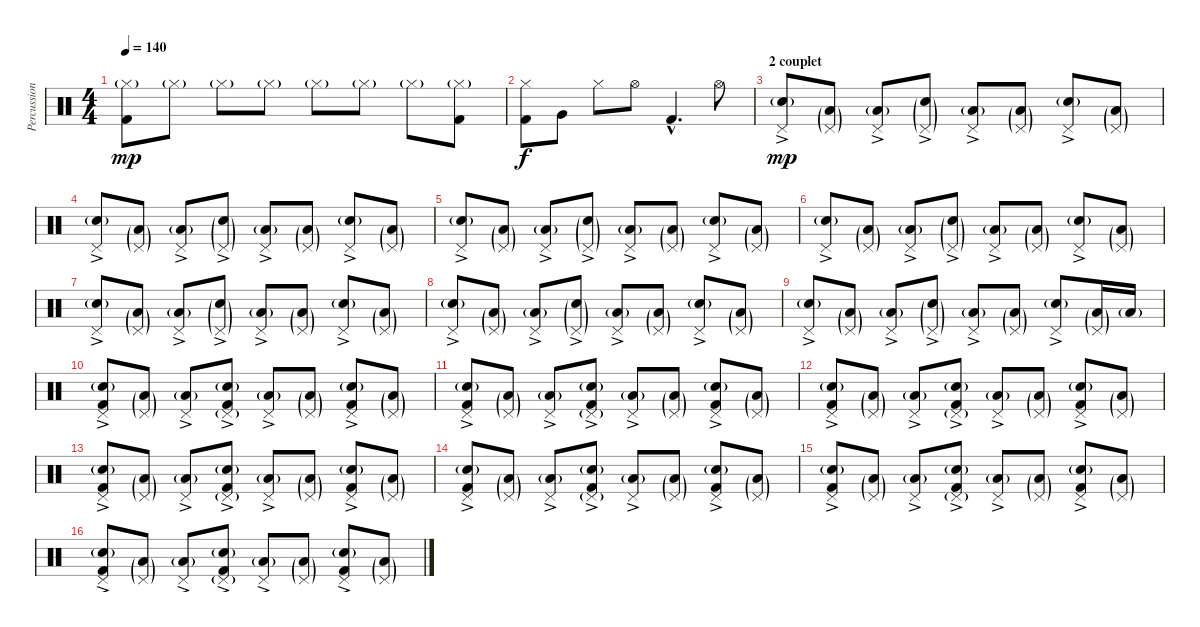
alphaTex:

\track ("Percussions" "Percussion") {instrument percussion}
\staff {score}
\articulation defaults
\ts (4 4)
\tempo 140
\clef neutral
\ks c
("Hi-Hat (closed)"{g} "Kick (hit) 2").8{dy mp} "Hi-Hat (closed)"{g}.8 "Hi-Hat (closed)"{g}.8 "Hi-Hat (closed)"{g}.8 "Hi-Hat (closed)"{g}.8 "Hi-Hat (closed)"{g}.8 "Hi-Hat (closed)"{g}.8 ("Hi-Hat (closed)"{g} "Kick (hit) 2").8 |
("Hi-Hat (closed)" "Kick (hit) 2").8{dy f} "Very Low Tom (hit)".8 "Hi-Hat (closed)".8 "Hi-Hat (open)".8 "Kick (hit) 2"{hac}.4{d} "Hi-Hat (open)".8 |
\section ("" "2 couplet")
("Pedal Hi-Hat (hit)"{ac} "Electric Snare (hit)"{g ac}).8{dy mp} ("Pedal Hi-Hat (hit)"{g} "Low Tom (hit)"{g}).8 ("Pedal Hi-Hat (hit)"{ac} "Low Tom (hit)"{g}).8 ("Pedal Hi-Hat (hit)"{g} "Electric Snare (hit)"{g ac}).8 ("Pedal Hi-Hat (hit)"{ac} "Low Tom (hit)"{g}).8 ("Pedal Hi-Hat (hit)"{g} "Low Tom (hit)"{g}).8 ("Pedal Hi-Hat (hit)"{ac} "Electric Snare (hit)"{g ac}).8 ("Pedal Hi-Hat (hit)"{g} "Low Tom (hit)"{g}).8 |
("Pedal Hi-Hat (hit)"{ac} "Electric Snare (hit)"{g ac}).8 ("Pedal Hi-Hat (hit)"{g} "Low Tom (hit)"{g}).8 ("Pedal Hi-Hat (hit)"{ac} "Low Tom (hit)"{g}).8 ("Pedal Hi-Hat (hit)"{g} "Electric Snare (hit)"{g ac}).8 ("Pedal Hi-Hat (hit)"{ac} "Low Tom (hit)"{g}).8 ("Pedal Hi-Hat (hit)"{g} "Low Tom (hit)"{g}).8 ("Pedal Hi-Hat (hit)"{ac} "Electric Snare (hit)"{g ac}).8 ("Pedal Hi-Hat (hit)"{g} "Low Tom (hit)"{g}).8 |
("Pedal Hi-Hat (hit)"{ac} "Electric Snare (hit)"{g ac}).8 ("Pedal Hi-Hat (hit)"{g} "Low Tom (hit)"{g}).8 ("Pedal Hi-Hat (hit)"{ac} "Low Tom (hit)"{g}).8 ("Pedal Hi-Hat (hit)"{g} "Electric Snare (hit)"{g ac}).8 ("Pedal Hi-Hat (hit)"{ac} "Low Tom (hit)"{g}).8 ("Pedal Hi-Hat (hit)"{g} "Low Tom (hit)"{g}).8 ("Pedal Hi-Hat (hit)"{ac} "Electric Snare (hit)"{g ac}).8 ("Pedal Hi-Hat (hit)"{g} "Low Tom (hit)"{g}).8 |
("Pedal Hi-Hat (hit)"{ac} "Electric Snare (hit)"{g ac}).8 ("Pedal Hi-Hat (hit)"{g} "Low Tom (hit)"{g}).8 ("Pedal Hi-Hat (hit)"{ac} "Low Tom (hit)"{g}).8 ("Pedal Hi-Hat (hit)"{g} "Electric Snare (hit)"{g ac}).8 ("Pedal Hi-Hat (hit)"{ac} "Low Tom (hit)"{g}).8 ("Pedal Hi-Hat (hit)"{g} "Low Tom (hit)"{g}).8 ("Pedal Hi-Hat (hit)"{ac} "Electric Snare (hit)"{g ac}).8 ("Pedal Hi-Hat (hit)"{g} "Low Tom (hit)"{g}).8 |
("Pedal Hi-Hat (hit)"{ac} "Electric Snare (hit)"{g ac}).8 ("Pedal Hi-Hat (hit)"{g} "Low Tom (hit)"{g}).8 ("Pedal Hi-Hat (hit)"{ac} "Low Tom (hit)"{g}).8 ("Pedal Hi-Hat (hit)"{g} "Electric Snare (hit)"{g ac}).8 ("Pedal Hi-Hat (hit)"{ac} "Low Tom (hit)"{g}).8 ("Pedal Hi-Hat (hit)"{g} "Low Tom (hit)"{g}).8 ("Pedal Hi-Hat (hit)"{ac} "Electric Snare (hit)"{g ac}).8 ("Pedal Hi-Hat (hit)"{g} "Low Tom (hit)"{g}).8 |
("Pedal Hi-Hat (hit)"{ac} "Electric Snare (hit)"{g ac}).8 ("Pedal Hi-Hat (hit)"{g} "Low Tom (hit)"{g}).8 ("Pedal Hi-Hat (hit)"{ac} "Low Tom (hit)"{g}).8 ("Pedal Hi-Hat (hit)"{g} "Electric Snare (hit)"{g ac}).8 ("Pedal Hi-Hat (hit)"{ac} "Low Tom (hit)"{g}).8 ("Pedal Hi-Hat (hit)"{g} "Low Tom (hit)"{g}).8 ("Pedal Hi-Hat (hit)"{ac} "Electric Snare (hit)"{g ac}).8 ("Pedal Hi-Hat (hit)"{g} "Low Tom (hit)"{g}).8 |
("Pedal Hi-Hat (hit)"{ac} "Electric Snare (hit)"{g ac}).8 ("Pedal Hi-Hat (hit)"{g} "Low Tom (hit)"{g}).8 ("Pedal Hi-Hat (hit)"{ac} "Low Tom (hit)"{g}).8 ("Pedal Hi-Hat (hit)"{g} "Electric Snare (hit)"{g ac}).8 ("Pedal Hi-Hat (hit)"{ac} "Low Tom (hit)"{g}).8 ("Pedal Hi-Hat (hit)"{g} "Low Tom (hit)"{g}).8 ("Pedal Hi-Hat (hit)"{ac} "Electric Snare (hit)"{g ac}).8 ("Pedal Hi-Hat (hit)"{g} "Low Tom (hit)"{g}).16 "Low Tom (hit)"{g}.16 |
("Pedal Hi-Hat (hit)"{ac} "Electric Snare (hit)"{g ac} "Kick (hit) 2").8 ("Pedal Hi-Hat (hit)"{g} "Low Tom (hit)"{g}).8 ("Pedal Hi-Hat (hit)"{ac} "Low Tom (hit)"{g}).8 ("Pedal Hi-Hat (hit)"{g} "Electric Snare (hit)"{g ac} "Kick (hit) 2").8 ("Pedal Hi-Hat (hit)"{ac} "Low Tom (hit)"{g}).8 ("Pedal Hi-Hat (hit)"{g} "Low Tom (hit)"{g}).8 ("Pedal Hi-Hat (hit)"{ac} "Electric Snare (hit)"{g ac} "Kick (hit) 2").8 ("Pedal Hi-Hat (hit)"{g} "Low Tom (hit)"{g}).8 |
("Pedal Hi-Hat (hit)"{ac} "Electric Snare (hit)"{g ac} "Kick (hit) 2").8 ("Pedal Hi-Hat (hit)"{g} "Low Tom (hit)"{g}).8 ("Pedal Hi-Hat (hit)"{ac} "Low Tom (hit)"{g}).8 ("Pedal Hi-Hat (hit)"{g} "Electric Snare (hit)"{g ac} "Kick (hit) 2").8 ("Pedal Hi-Hat (hit)"{ac} "Low Tom (hit)"{g}).8 ("Pedal Hi-Hat (hit)"{g} "Low Tom (hit)"{g}).8 ("Pedal Hi-Hat (hit)"{ac} "Electric Snare (hit)"{g ac} "Kick (hit) 2").8 ("Pedal Hi-Hat (hit)"{g} "Low Tom (hit)"{g}).8 |
("Pedal Hi-Hat (hit)"{ac} "Electric Snare (hit)"{g ac} "Kick (hit) 2").8 ("Pedal Hi-Hat (hit)"{g} "Low Tom (hit)"{g}).8 ("Pedal Hi-Hat (hit)"{ac} "Low Tom (hit)"{g}).8 ("Pedal Hi-Hat (hit)"{g} "Electric Snare (hit)"{g ac} "Kick (hit) 2").8 ("Pedal Hi-Hat (hit)"{ac} "Low Tom (hit)"{g}).8 ("Pedal Hi-Hat (hit)"{g} "Low Tom (hit)"{g}).8 ("Pedal Hi-Hat (hit)"{ac} "Electric Snare (hit)"{g ac} "Kick (hit) 2").8 ("Pedal Hi-Hat (hit)"{g} "Low Tom (hit)"{g}).8 |
("Pedal Hi-Hat (hit)"{ac} "Electric Snare (hit)"{g ac} "Kick (hit) 2").8 ("Pedal Hi-Hat (hit)"{g} "Low Tom (hit)"{g}).8 ("Pedal Hi-Hat (hit)"{ac} "Low Tom (hit)"{g}).8 ("Pedal Hi-Hat (hit)"{g} "Electric Snare (hit)"{g ac} "Kick (hit) 2").8 ("Pedal Hi-Hat (hit)"{ac} "Low Tom (hit)"{g}).8 ("Pedal Hi-Hat (hit)"{g} "Low Tom (hit)"{g}).8 ("Pedal Hi-Hat (hit)"{ac} "Electric Snare (hit)"{g ac} "Kick (hit) 2").8 ("Pedal Hi-Hat (hit)"{g} "Low Tom (hit)"{g}).8 |
("Pedal Hi-Hat (hit)"{ac} "Electric Snare (hit)"{g ac} "Kick (hit) 2").8 ("Pedal Hi-Hat (hit)"{g} "Low Tom (hit)"{g}).8 ("Pedal Hi-Hat (hit)"{ac} "Low Tom (hit)"{g}).8 ("Pedal Hi-Hat (hit)"{g} "Electric Snare (hit)"{g ac} "Kick (hit) 2").8 ("Pedal Hi-Hat (hit)"{ac} "Low Tom (hit)"{g}).8 ("Pedal Hi-Hat (hit)"{g} "Low Tom (hit)"{g}).8 ("Pedal Hi-Hat (hit)"{ac} "Electric Snare (hit)"{g ac} "Kick (hit) 2").8 ("Pedal Hi-Hat (hit)"{g} "Low Tom (hit)"{g}).8 |
("Pedal Hi-Hat (hit)"{ac} "Electric Snare (hit)"{g ac} "Kick (hit) 2").8 ("Pedal Hi-Hat (hit)"{g} "Low Tom (hit)"{g}).8 ("Pedal Hi-Hat (hit)"{ac} "Low Tom (hit)"{g}).8 ("Pedal Hi-Hat (hit)"{g} "Electric Snare (hit)"{g ac} "Kick (hit) 2").8 ("Pedal Hi-Hat (hit)"{ac} "Low Tom (hit)"{g}).8 ("Pedal Hi-Hat (hit)"{g} "Low Tom (hit)"{g}).8 ("Pedal Hi-Hat (hit)"{ac} "Electric Snare (hit)"{g ac} "Kick (hit) 2").8 ("Pedal Hi-Hat (hit)"{g} "Low Tom (hit)"{g}).8 |
("Pedal Hi-Hat (hit)"{ac} "Electric Snare (hit)"{g ac} "Kick (hit) 2").8 ("Pedal Hi-Hat (hit)"{g} "Low Tom (hit)"{g}).8 ("Pedal Hi-Hat (hit)"{ac} "Low Tom (hit)"{g}).8 ("Pedal Hi-Hat (hit)"{g} "Electric Snare (hit)"{g ac} "Kick (hit) 2").8 ("Pedal Hi-Hat (hit)"{ac} "Low Tom (hit)"{g}).8 ("Pedal Hi-Hat (hit)"{g} "Low Tom (hit)"{g}).8 ("Pedal Hi-Hat (hit)"{ac} "Electric Snare (hit)"{g ac} "Kick (hit) 2").8 ("Pedal Hi-Hat (hit)"{g} "Low Tom (hit)"{g}).8
